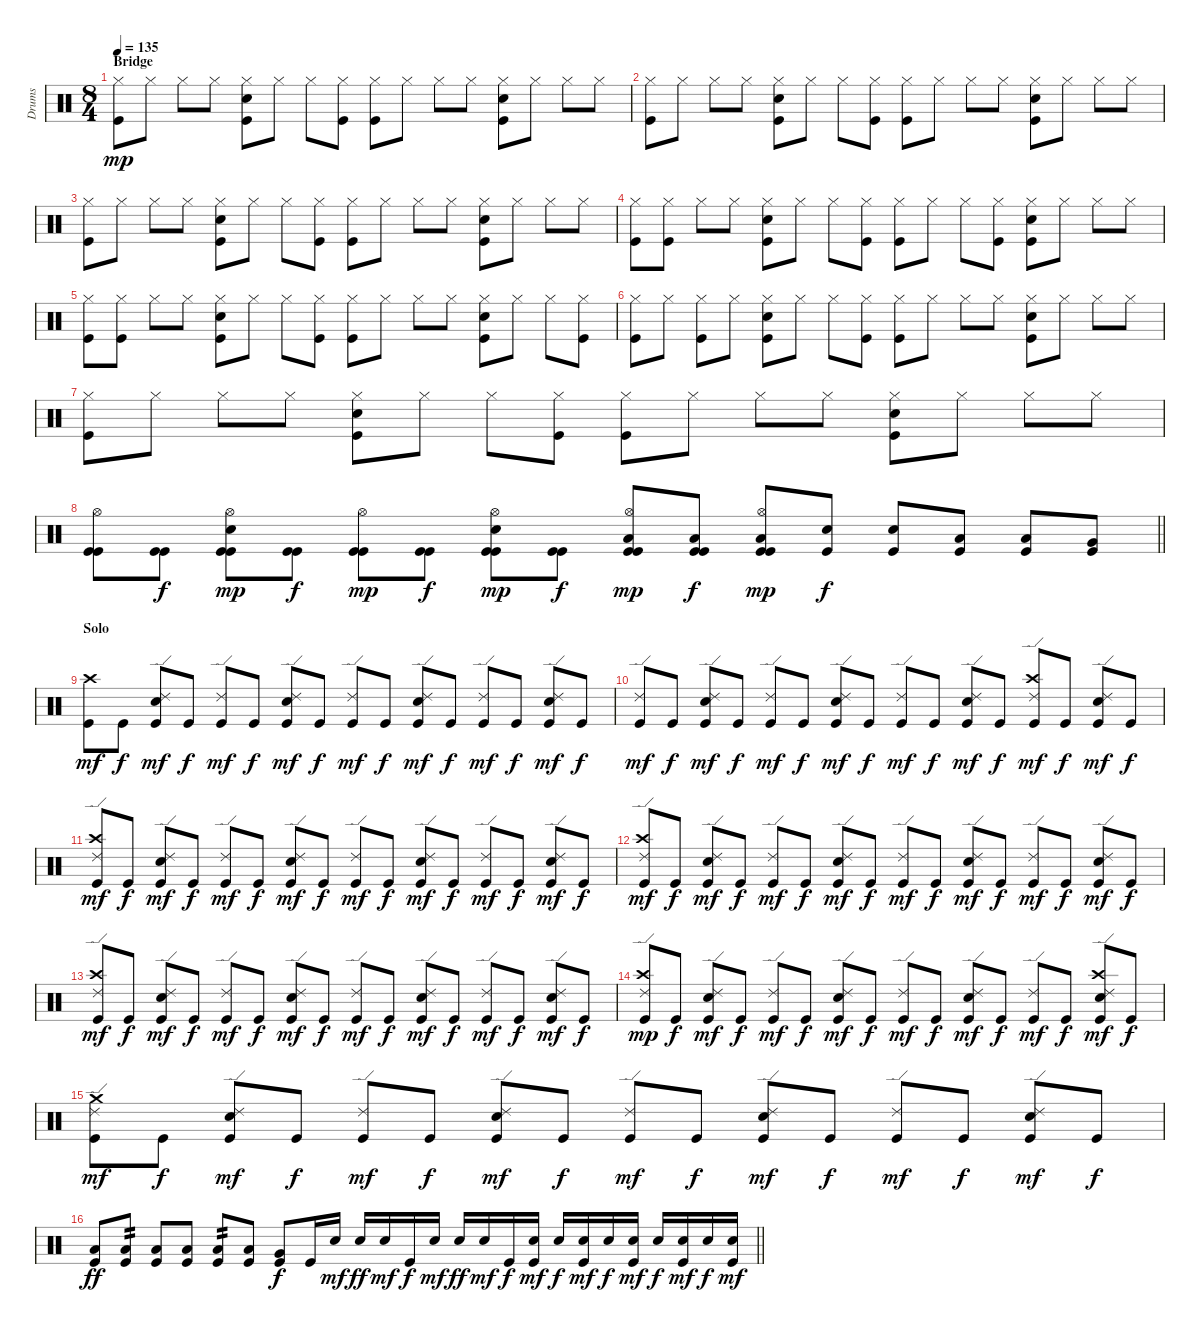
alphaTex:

\track ("Drums" "Drums") {instrument percussion}
\staff {score}
\articulation defaults
\ts (8 4)
\section ("" "Bridge")
\tempo 135
\clef neutral
\ks c
("Hi-Hat (closed)" "Kick (hit)").8{dy mp} "Hi-Hat (closed)".8 "Hi-Hat (closed)".8 "Hi-Hat (closed)".8 ("Hi-Hat (closed)" "Electric Snare (hit)" "Kick (hit)").8 "Hi-Hat (closed)".8 "Hi-Hat (closed)".8 ("Hi-Hat (closed)" "Kick (hit)").8 ("Hi-Hat (closed)" "Kick (hit)").8 "Hi-Hat (closed)".8 "Hi-Hat (closed)".8 "Hi-Hat (closed)".8 ("Hi-Hat (closed)" "Electric Snare (hit)" "Kick (hit)").8 "Hi-Hat (closed)".8 "Hi-Hat (closed)".8 "Hi-Hat (closed)".8 |
("Hi-Hat (closed)" "Kick (hit)").8 "Hi-Hat (closed)".8 "Hi-Hat (closed)".8 "Hi-Hat (closed)".8 ("Hi-Hat (closed)" "Electric Snare (hit)" "Kick (hit)").8 "Hi-Hat (closed)".8 "Hi-Hat (closed)".8 ("Hi-Hat (closed)" "Kick (hit)").8 ("Hi-Hat (closed)" "Kick (hit)").8 "Hi-Hat (closed)".8 "Hi-Hat (closed)".8 "Hi-Hat (closed)".8 ("Hi-Hat (closed)" "Electric Snare (hit)" "Kick (hit)").8 "Hi-Hat (closed)".8 "Hi-Hat (closed)".8 "Hi-Hat (closed)".8 |
("Hi-Hat (closed)" "Kick (hit)").8 "Hi-Hat (closed)".8 "Hi-Hat (closed)".8 "Hi-Hat (closed)".8 ("Hi-Hat (closed)" "Electric Snare (hit)" "Kick (hit)").8 "Hi-Hat (closed)".8 "Hi-Hat (closed)".8 ("Hi-Hat (closed)" "Kick (hit)").8 ("Hi-Hat (closed)" "Kick (hit)").8 "Hi-Hat (closed)".8 "Hi-Hat (closed)".8 "Hi-Hat (closed)".8 ("Hi-Hat (closed)" "Electric Snare (hit)" "Kick (hit)").8 "Hi-Hat (closed)".8 "Hi-Hat (closed)".8 "Hi-Hat (closed)".8 |
("Hi-Hat (closed)" "Kick (hit)").8 ("Hi-Hat (closed)" "Kick (hit)").8 "Hi-Hat (closed)".8 "Hi-Hat (closed)".8 ("Hi-Hat (closed)" "Electric Snare (hit)" "Kick (hit)").8 "Hi-Hat (closed)".8 "Hi-Hat (closed)".8 ("Hi-Hat (closed)" "Kick (hit)").8 ("Hi-Hat (closed)" "Kick (hit)").8 "Hi-Hat (closed)".8 "Hi-Hat (closed)".8 ("Hi-Hat (closed)" "Kick (hit)").8 ("Hi-Hat (closed)" "Electric Snare (hit)" "Kick (hit)").8 "Hi-Hat (closed)".8 "Hi-Hat (closed)".8 "Hi-Hat (closed)".8 |
("Hi-Hat (closed)" "Kick (hit)").8 ("Hi-Hat (closed)" "Kick (hit)").8 "Hi-Hat (closed)".8 "Hi-Hat (closed)".8 ("Hi-Hat (closed)" "Electric Snare (hit)" "Kick (hit)").8 "Hi-Hat (closed)".8 "Hi-Hat (closed)".8 ("Hi-Hat (closed)" "Kick (hit)").8 ("Hi-Hat (closed)" "Kick (hit)").8 "Hi-Hat (closed)".8 "Hi-Hat (closed)".8 "Hi-Hat (closed)".8 ("Hi-Hat (closed)" "Electric Snare (hit)" "Kick (hit)").8 "Hi-Hat (closed)".8 "Hi-Hat (closed)".8 ("Hi-Hat (closed)" "Kick (hit)").8 |
("Hi-Hat (closed)" "Kick (hit)").8 "Hi-Hat (closed)".8 ("Hi-Hat (closed)" "Kick (hit)").8 "Hi-Hat (closed)".8 ("Hi-Hat (closed)" "Electric Snare (hit)" "Kick (hit)").8 "Hi-Hat (closed)".8 "Hi-Hat (closed)".8 ("Hi-Hat (closed)" "Kick (hit)").8 ("Hi-Hat (closed)" "Kick (hit)").8 "Hi-Hat (closed)".8 "Hi-Hat (closed)".8 "Hi-Hat (closed)".8 ("Hi-Hat (closed)" "Electric Snare (hit)" "Kick (hit)").8 "Hi-Hat (closed)".8 "Hi-Hat (closed)".8 "Hi-Hat (closed)".8 |
("Hi-Hat (closed)" "Kick (hit)").8 "Hi-Hat (closed)".8 "Hi-Hat (closed)".8 "Hi-Hat (closed)".8 ("Hi-Hat (closed)" "Electric Snare (hit)" "Kick (hit)").8 "Hi-Hat (closed)".8 "Hi-Hat (closed)".8 ("Hi-Hat (closed)" "Kick (hit)").8 ("Hi-Hat (closed)" "Kick (hit)").8 "Hi-Hat (closed)".8 "Hi-Hat (closed)".8 "Hi-Hat (closed)".8 ("Hi-Hat (closed)" "Electric Snare (hit)" "Kick (hit)").8 "Hi-Hat (closed)".8 "Hi-Hat (closed)".8 "Hi-Hat (closed)".8 |
\barLineRight lightlight
("Hi-Hat (open)" "Kick (hit)" "Kick (hit)").8 ("Kick (hit)" "Kick (hit)").8{dy f} ("Hi-Hat (open)" "Electric Snare (hit)" "Kick (hit)" "Kick (hit)").8{dy mp} ("Kick (hit)" "Kick (hit)").8{dy f} ("Hi-Hat (open)" "Kick (hit)" "Kick (hit)").8{dy mp} ("Kick (hit)" "Kick (hit)").8{dy f} ("Hi-Hat (open)" "Electric Snare (hit)" "Kick (hit)" "Kick (hit)").8{dy mp} ("Kick (hit)" "Kick (hit)").8{dy f} ("Hi-Hat (open)" "Low Tom (hit)" "Kick (hit)" "Kick (hit)").8{dy mp} ("Low Tom (hit)" "Kick (hit)" "Kick (hit)").8{dy f} ("Hi-Hat (open)" "Low Tom (hit)" "Kick (hit)" "Kick (hit)").8{dy mp} ("Electric Snare (hit)" "Kick (hit)").8{dy f} ("Electric Snare (hit)" "Kick (hit)").8 ("Low Tom (hit)" "Kick (hit)").8 ("Low Tom (hit)" "Kick (hit)").8 ("Very Low Tom (hit)" "Kick (hit)").8 |
\section ("" "Solo")
("Crash high (hit)" "Kick (hit)").8{dy mf} "Kick (hit)".8{dy f} ("Ride (edge) 2" "Electric Snare (hit)" "Kick (hit)").8{dy mf} "Kick (hit)".8{dy f} ("Ride (edge) 2" "Kick (hit)").8{dy mf} "Kick (hit)".8{dy f} ("Ride (edge) 2" "Electric Snare (hit)" "Kick (hit)").8{dy mf} "Kick (hit)".8{dy f} ("Ride (edge) 2" "Kick (hit)").8{dy mf} "Kick (hit)".8{dy f} ("Ride (edge) 2" "Electric Snare (hit)" "Kick (hit)").8{dy mf} "Kick (hit)".8{dy f} ("Ride (edge) 2" "Kick (hit)").8{dy mf} "Kick (hit)".8{dy f} ("Ride (edge) 2" "Electric Snare (hit)" "Kick (hit)").8{dy mf} "Kick (hit)".8{dy f} |
("Ride (edge) 2" "Kick (hit)").8{dy mf} "Kick (hit)".8{dy f} ("Ride (edge) 2" "Electric Snare (hit)" "Kick (hit)").8{dy mf} "Kick (hit)".8{dy f} ("Ride (edge) 2" "Kick (hit)").8{dy mf} "Kick (hit)".8{dy f} ("Ride (edge) 2" "Electric Snare (hit)" "Kick (hit)").8{dy mf} "Kick (hit)".8{dy f} ("Ride (edge) 2" "Kick (hit)").8{dy mf} "Kick (hit)".8{dy f} ("Ride (edge) 2" "Electric Snare (hit)" "Kick (hit)").8{dy mf} "Kick (hit)".8{dy f} ("Ride (edge) 2" "Crash high (hit)" "Kick (hit)").8{dy mf} "Kick (hit)".8{dy f} ("Ride (edge) 2" "Electric Snare (hit)" "Kick (hit)").8{dy mf} "Kick (hit)".8{dy f} |
("Ride (edge) 2" "Crash high (hit)" "Kick (hit)").8{dy mf} "Kick (hit)".8{dy f} ("Ride (edge) 2" "Electric Snare (hit)" "Kick (hit)").8{dy mf} "Kick (hit)".8{dy f} ("Ride (edge) 2" "Kick (hit)").8{dy mf} "Kick (hit)".8{dy f} ("Ride (edge) 2" "Electric Snare (hit)" "Kick (hit)").8{dy mf} "Kick (hit)".8{dy f} ("Ride (edge) 2" "Kick (hit)").8{dy mf} "Kick (hit)".8{dy f} ("Ride (edge) 2" "Electric Snare (hit)" "Kick (hit)").8{dy mf} "Kick (hit)".8{dy f} ("Ride (edge) 2" "Kick (hit)").8{dy mf} "Kick (hit)".8{dy f} ("Ride (edge) 2" "Electric Snare (hit)" "Kick (hit)").8{dy mf} "Kick (hit)".8{dy f} |
("Ride (edge) 2" "Crash high (hit)" "Kick (hit)").8{dy mf} "Kick (hit)".8{dy f} ("Ride (edge) 2" "Electric Snare (hit)" "Kick (hit)").8{dy mf} "Kick (hit)".8{dy f} ("Ride (edge) 2" "Kick (hit)").8{dy mf} "Kick (hit)".8{dy f} ("Ride (edge) 2" "Electric Snare (hit)" "Kick (hit)").8{dy mf} "Kick (hit)".8{dy f} ("Ride (edge) 2" "Kick (hit)").8{dy mf} "Kick (hit)".8{dy f} ("Ride (edge) 2" "Electric Snare (hit)" "Kick (hit)").8{dy mf} "Kick (hit)".8{dy f} ("Ride (edge) 2" "Kick (hit)").8{dy mf} "Kick (hit)".8{dy f} ("Ride (edge) 2" "Electric Snare (hit)" "Kick (hit)").8{dy mf} "Kick (hit)".8{dy f} |
("Ride (edge) 2" "Crash high (hit)" "Kick (hit)").8{dy mf} "Kick (hit)".8{dy f} ("Ride (edge) 2" "Electric Snare (hit)" "Kick (hit)").8{dy mf} "Kick (hit)".8{dy f} ("Ride (edge) 2" "Kick (hit)").8{dy mf} "Kick (hit)".8{dy f} ("Ride (edge) 2" "Electric Snare (hit)" "Kick (hit)").8{dy mf} "Kick (hit)".8{dy f} ("Ride (edge) 2" "Kick (hit)").8{dy mf} "Kick (hit)".8{dy f} ("Ride (edge) 2" "Electric Snare (hit)" "Kick (hit)").8{dy mf} "Kick (hit)".8{dy f} ("Ride (edge) 2" "Kick (hit)").8{dy mf} "Kick (hit)".8{dy f} ("Ride (edge) 2" "Electric Snare (hit)" "Kick (hit)").8{dy mf} "Kick (hit)".8{dy f} |
("Ride (edge) 2" "Crash high (hit)" "Kick (hit)").8{dy mp} "Kick (hit)".8{dy f} ("Ride (edge) 2" "Electric Snare (hit)" "Kick (hit)").8{dy mf} "Kick (hit)".8{dy f} ("Ride (edge) 2" "Kick (hit)").8{dy mf} "Kick (hit)".8{dy f} ("Ride (edge) 2" "Electric Snare (hit)" "Kick (hit)").8{dy mf} "Kick (hit)".8{dy f} ("Ride (edge) 2" "Kick (hit)").8{dy mf} "Kick (hit)".8{dy f} ("Ride (edge) 2" "Electric Snare (hit)" "Kick (hit)").8{dy mf} "Kick (hit)".8{dy f} ("Ride (edge) 2" "Kick (hit)").8{dy mf} "Kick (hit)".8{dy f} ("Ride (edge) 2" "Crash high (hit)" "Electric Snare (hit)" "Kick (hit)").8{dy mf} "Kick (hit)".8{dy f} |
("Ride (edge) 2" "Crash medium (hit)" "Kick (hit)").8{dy mf} "Kick (hit)".8{dy f} ("Ride (edge) 2" "Electric Snare (hit)" "Kick (hit)").8{dy mf} "Kick (hit)".8{dy f} ("Ride (edge) 2" "Kick (hit)").8{dy mf} "Kick (hit)".8{dy f} ("Ride (edge) 2" "Electric Snare (hit)" "Kick (hit)").8{dy mf} "Kick (hit)".8{dy f} ("Ride (edge) 2" "Kick (hit)").8{dy mf} "Kick (hit)".8{dy f} ("Ride (edge) 2" "Electric Snare (hit)" "Kick (hit)").8{dy mf} "Kick (hit)".8{dy f} ("Ride (edge) 2" "Kick (hit)").8{dy mf} "Kick (hit)".8{dy f} ("Ride (edge) 2" "Electric Snare (hit)" "Kick (hit)").8{dy mf} "Kick (hit)".8{dy f} |
\barLineRight lightlight
("Low Tom (hit)" "Kick (hit)").8{dy ff} ("Low Tom (hit)" "Kick (hit)").8{tp 2} ("Low Tom (hit)" "Kick (hit)").8 ("Low Tom (hit)" "Kick (hit)").8 ("Low Tom (hit)" "Kick (hit)").8{tp 2} ("Low Tom (hit)" "Kick (hit)").8 ("Very Low Tom (hit)" "Kick (hit)").8{dy f} "Kick (hit)".16 "Electric Snare (hit)".16{dy mf} "Electric Snare (hit)".16{dy ff} "Electric Snare (hit)".16{dy mf} "Kick (hit)".16{dy f} "Electric Snare (hit)".16{dy mf} "Electric Snare (hit)".16{dy ff} "Electric Snare (hit)".16{dy mf} "Kick (hit)".16{dy f} ("Electric Snare (hit)" "Kick (hit)").16{dy mf} "Electric Snare (hit)".16{dy f} ("Electric Snare (hit)" "Kick (hit)").16{dy mf} "Electric Snare (hit)".16{dy f} ("Electric Snare (hit)" "Kick (hit)").16{dy mf} "Electric Snare (hit)".16{dy f} ("Electric Snare (hit)" "Kick (hit)").16{dy mf} "Electric Snare (hit)".16{dy f} ("Electric Snare (hit)" "Kick (hit)").16{dy mf}
